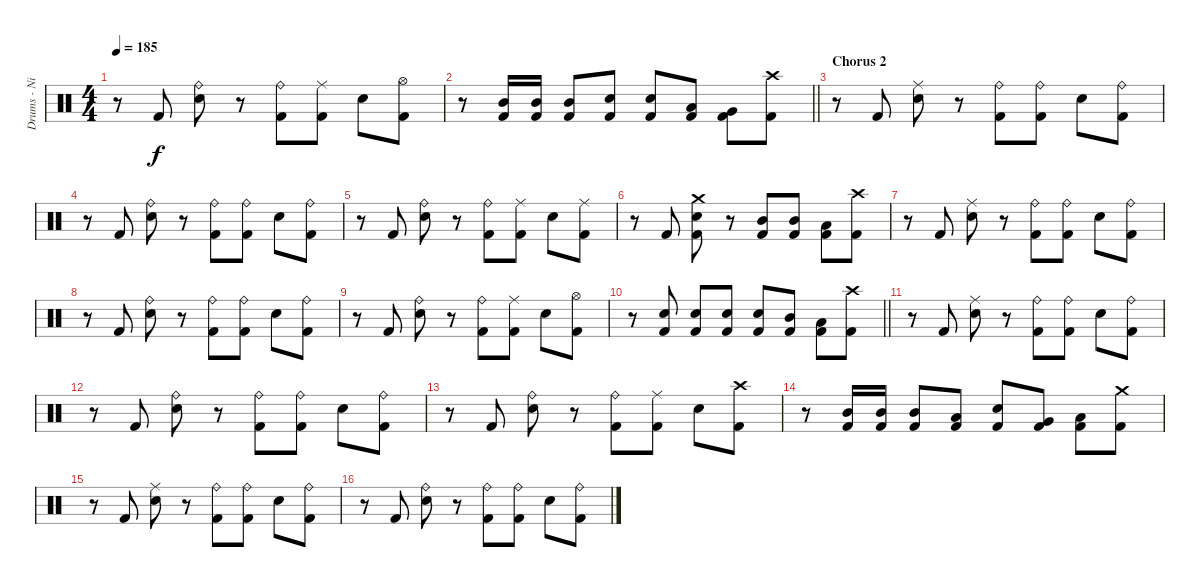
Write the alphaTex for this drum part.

\track ("Drums - Nicko" "Drums - Ni") {instrument percussion}
\staff {score}
\articulation defaults
\ts (4 4)
\tempo 185
\clef neutral
\ks c
r.8{dy f} "Kick (hit) 2".8 ("Ride (bell)" "Snare (hit) 2").8 r.8 ("Ride (bell)" "Kick (hit) 2").8 ("Ride (middle)" "Kick (hit) 2").8 "Snare (hit) 2".8 ("Hi-Hat (open)" "Kick (hit) 2").8 |
\barLineRight lightlight
r.8 ("Mid Tom (hit)" "Kick (hit) 2").16 ("Mid Tom (hit)" "Kick (hit) 2").16 ("Mid Tom (hit)" "Kick (hit) 2").8 ("Snare (hit) 2" "Kick (hit) 2").8 ("Snare (hit) 2" "Kick (hit) 2").8 ("Low Tom (hit)" "Kick (hit) 2").8 ("Very Low Tom (hit)" "Kick (hit) 2").8 ("Crash high (hit)" "Kick (hit) 2").8 |
\section ("" "Chorus 2")
r.8 "Kick (hit) 2".8 ("Ride (middle)" "Snare (hit) 2").8 r.8 ("Ride (bell)" "Kick (hit) 2").8 ("Ride (bell)" "Kick (hit) 2").8 "Snare (hit) 2".8 ("Ride (bell)" "Kick (hit) 2").8 |
r.8 "Kick (hit) 2".8 ("Ride (bell)" "Snare (hit) 2").8 r.8 ("Ride (bell)" "Kick (hit) 2").8 ("Ride (bell)" "Kick (hit) 2").8 "Snare (hit) 2".8 ("Ride (bell)" "Kick (hit) 2").8 |
r.8 "Kick (hit) 2".8 ("Ride (bell)" "Snare (hit) 2").8 r.8 ("Ride (bell)" "Kick (hit) 2").8 ("Ride (middle)" "Kick (hit) 2").8 "Snare (hit) 2".8 ("Ride (middle)" "Kick (hit) 2").8 |
r.8 "Kick (hit) 2".8 ("Crash medium (hit)" "Snare (hit) 2" "Kick (hit) 2").8 r.8 ("Mid Tom (hit)" "Kick (hit) 2").8 ("Mid Tom (hit)" "Kick (hit) 2").8 ("Low Tom (hit)" "Kick (hit) 2").8 ("Crash high (hit)" "Kick (hit) 2").8 |
r.8 "Kick (hit) 2".8 ("Ride (middle)" "Snare (hit) 2").8 r.8 ("Ride (bell)" "Kick (hit) 2").8 ("Ride (bell)" "Kick (hit) 2").8 "Snare (hit) 2".8 ("Ride (bell)" "Kick (hit) 2").8 |
r.8 "Kick (hit) 2".8 ("Ride (bell)" "Snare (hit) 2").8 r.8 ("Ride (bell)" "Kick (hit) 2").8 ("Ride (bell)" "Kick (hit) 2").8 "Snare (hit) 2".8 ("Ride (bell)" "Kick (hit) 2").8 |
r.8 "Kick (hit) 2".8 ("Ride (bell)" "Snare (hit) 2").8 r.8 ("Ride (bell)" "Kick (hit) 2").8 ("Ride (middle)" "Kick (hit) 2").8 "Snare (hit) 2".8 ("Hi-Hat (open)" "Kick (hit) 2").8 |
\barLineRight lightlight
r.8 ("Snare (hit) 2" "Kick (hit) 2").8 ("Snare (hit) 2" "Kick (hit) 2").8 ("Snare (hit) 2" "Kick (hit) 2").8 ("Snare (hit) 2" "Kick (hit) 2").8 ("Mid Tom (hit)" "Kick (hit) 2").8 ("Low Tom (hit)" "Kick (hit) 2").8 ("Crash high (hit)" "Kick (hit) 2").8 |
\section ("" "")
r.8 "Kick (hit) 2".8 ("Ride (middle)" "Snare (hit) 2").8 r.8 ("Ride (bell)" "Kick (hit) 2").8 ("Ride (bell)" "Kick (hit) 2").8 "Snare (hit) 2".8 ("Ride (bell)" "Kick (hit) 2").8 |
r.8 "Kick (hit) 2".8 ("Ride (bell)" "Snare (hit) 2").8 r.8 ("Ride (bell)" "Kick (hit) 2").8 ("Ride (bell)" "Kick (hit) 2").8 "Snare (hit) 2".8 ("Ride (bell)" "Kick (hit) 2").8 |
r.8 "Kick (hit) 2".8 ("Ride (bell)" "Snare (hit) 2").8 r.8 ("Ride (bell)" "Kick (hit) 2").8 ("Ride (middle)" "Kick (hit) 2").8 "Snare (hit) 2".8 ("Crash high (hit)" "Kick (hit) 2").8 |
r.8 ("Mid Tom (hit)" "Kick (hit) 2").16 ("Mid Tom (hit)" "Kick (hit) 2").16 ("Mid Tom (hit)" "Kick (hit) 2").8 ("Low Tom (hit)" "Kick (hit) 2").8 ("Snare (hit) 2" "Kick (hit) 2").8 ("Very Low Tom (hit)" "Kick (hit) 2").8 ("Low Floor Tom (hit)" "Kick (hit) 2").8 ("Crash medium (hit)" "Kick (hit) 2").8 |
r.8 "Kick (hit) 2".8 ("Ride (middle)" "Snare (hit) 2").8 r.8 ("Ride (bell)" "Kick (hit) 2").8 ("Ride (bell)" "Kick (hit) 2").8 "Snare (hit) 2".8 ("Ride (bell)" "Kick (hit) 2").8 |
r.8 "Kick (hit) 2".8 ("Ride (bell)" "Snare (hit) 2").8 r.8 ("Ride (bell)" "Kick (hit) 2").8 ("Ride (bell)" "Kick (hit) 2").8 "Snare (hit) 2".8 ("Ride (bell)" "Kick (hit) 2").8
